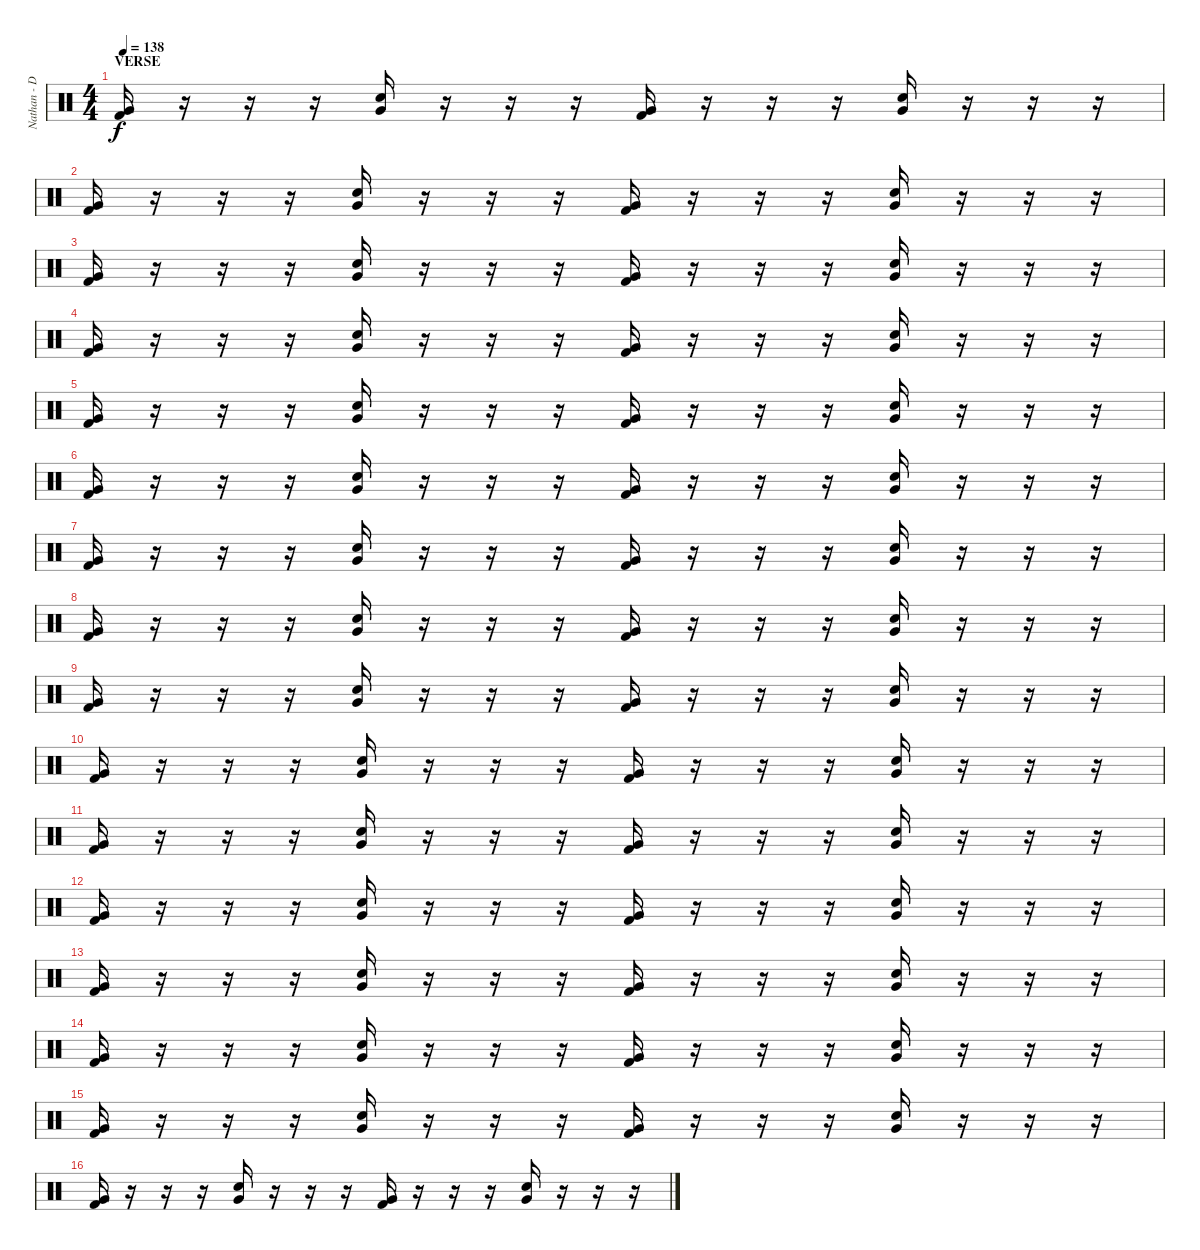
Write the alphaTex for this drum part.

\track ("Nathan - Drums" "Nathan - D") {instrument percussion}
\staff {score}
\articulation defaults
\ts (4 4)
\section ("" "VERSE")
\tempo 138
\clef neutral
\ks c
("Very Low Tom (hit)" "Kick (hit) 2").16{dy f} r.16 r.16 r.16 ("Snare (hit) 2" "Very Low Tom (hit)").16 r.16 r.16 r.16 ("Very Low Tom (hit)" "Kick (hit) 2").16 r.16 r.16 r.16 ("Snare (hit) 2" "Very Low Tom (hit)").16 r.16 r.16 r.16 |
("Very Low Tom (hit)" "Kick (hit) 2").16 r.16 r.16 r.16 ("Snare (hit) 2" "Very Low Tom (hit)").16 r.16 r.16 r.16 ("Very Low Tom (hit)" "Kick (hit) 2").16 r.16 r.16 r.16 ("Snare (hit) 2" "Very Low Tom (hit)").16 r.16 r.16 r.16 |
("Very Low Tom (hit)" "Kick (hit) 2").16 r.16 r.16 r.16 ("Snare (hit) 2" "Very Low Tom (hit)").16 r.16 r.16 r.16 ("Very Low Tom (hit)" "Kick (hit) 2").16 r.16 r.16 r.16 ("Snare (hit) 2" "Very Low Tom (hit)").16 r.16 r.16 r.16 |
("Very Low Tom (hit)" "Kick (hit) 2").16 r.16 r.16 r.16 ("Snare (hit) 2" "Very Low Tom (hit)").16 r.16 r.16 r.16 ("Very Low Tom (hit)" "Kick (hit) 2").16 r.16 r.16 r.16 ("Snare (hit) 2" "Very Low Tom (hit)").16 r.16 r.16 r.16 |
("Very Low Tom (hit)" "Kick (hit) 2").16 r.16 r.16 r.16 ("Snare (hit) 2" "Very Low Tom (hit)").16 r.16 r.16 r.16 ("Very Low Tom (hit)" "Kick (hit) 2").16 r.16 r.16 r.16 ("Snare (hit) 2" "Very Low Tom (hit)").16 r.16 r.16 r.16 |
("Very Low Tom (hit)" "Kick (hit) 2").16 r.16 r.16 r.16 ("Snare (hit) 2" "Very Low Tom (hit)").16 r.16 r.16 r.16 ("Very Low Tom (hit)" "Kick (hit) 2").16 r.16 r.16 r.16 ("Snare (hit) 2" "Very Low Tom (hit)").16 r.16 r.16 r.16 |
("Very Low Tom (hit)" "Kick (hit) 2").16 r.16 r.16 r.16 ("Snare (hit) 2" "Very Low Tom (hit)").16 r.16 r.16 r.16 ("Very Low Tom (hit)" "Kick (hit) 2").16 r.16 r.16 r.16 ("Snare (hit) 2" "Very Low Tom (hit)").16 r.16 r.16 r.16 |
("Very Low Tom (hit)" "Kick (hit) 2").16 r.16 r.16 r.16 ("Snare (hit) 2" "Very Low Tom (hit)").16 r.16 r.16 r.16 ("Very Low Tom (hit)" "Kick (hit) 2").16 r.16 r.16 r.16 ("Snare (hit) 2" "Very Low Tom (hit)").16 r.16 r.16 r.16 |
("Very Low Tom (hit)" "Kick (hit) 2").16 r.16 r.16 r.16 ("Snare (hit) 2" "Very Low Tom (hit)").16 r.16 r.16 r.16 ("Very Low Tom (hit)" "Kick (hit) 2").16 r.16 r.16 r.16 ("Snare (hit) 2" "Very Low Tom (hit)").16 r.16 r.16 r.16 |
("Very Low Tom (hit)" "Kick (hit) 2").16 r.16 r.16 r.16 ("Snare (hit) 2" "Very Low Tom (hit)").16 r.16 r.16 r.16 ("Very Low Tom (hit)" "Kick (hit) 2").16 r.16 r.16 r.16 ("Snare (hit) 2" "Very Low Tom (hit)").16 r.16 r.16 r.16 |
("Very Low Tom (hit)" "Kick (hit) 2").16 r.16 r.16 r.16 ("Snare (hit) 2" "Very Low Tom (hit)").16 r.16 r.16 r.16 ("Very Low Tom (hit)" "Kick (hit) 2").16 r.16 r.16 r.16 ("Snare (hit) 2" "Very Low Tom (hit)").16 r.16 r.16 r.16 |
("Very Low Tom (hit)" "Kick (hit) 2").16 r.16 r.16 r.16 ("Snare (hit) 2" "Very Low Tom (hit)").16 r.16 r.16 r.16 ("Very Low Tom (hit)" "Kick (hit) 2").16 r.16 r.16 r.16 ("Snare (hit) 2" "Very Low Tom (hit)").16 r.16 r.16 r.16 |
("Very Low Tom (hit)" "Kick (hit) 2").16 r.16 r.16 r.16 ("Snare (hit) 2" "Very Low Tom (hit)").16 r.16 r.16 r.16 ("Very Low Tom (hit)" "Kick (hit) 2").16 r.16 r.16 r.16 ("Snare (hit) 2" "Very Low Tom (hit)").16 r.16 r.16 r.16 |
("Very Low Tom (hit)" "Kick (hit) 2").16 r.16 r.16 r.16 ("Snare (hit) 2" "Very Low Tom (hit)").16 r.16 r.16 r.16 ("Very Low Tom (hit)" "Kick (hit) 2").16 r.16 r.16 r.16 ("Snare (hit) 2" "Very Low Tom (hit)").16 r.16 r.16 r.16 |
("Very Low Tom (hit)" "Kick (hit) 2").16 r.16 r.16 r.16 ("Snare (hit) 2" "Very Low Tom (hit)").16 r.16 r.16 r.16 ("Very Low Tom (hit)" "Kick (hit) 2").16 r.16 r.16 r.16 ("Snare (hit) 2" "Very Low Tom (hit)").16 r.16 r.16 r.16 |
("Very Low Tom (hit)" "Kick (hit) 2").16 r.16 r.16 r.16 ("Snare (hit) 2" "Very Low Tom (hit)").16 r.16 r.16 r.16 ("Very Low Tom (hit)" "Kick (hit) 2").16 r.16 r.16 r.16 ("Snare (hit) 2" "Very Low Tom (hit)").16 r.16 r.16 r.16
